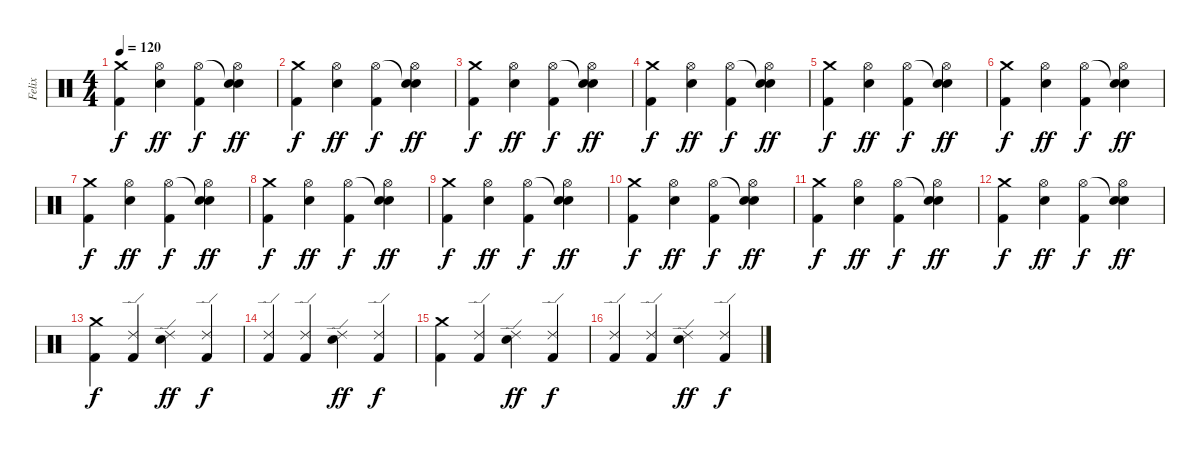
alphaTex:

\track ("Felix" "Felix") {instrument percussion}
\staff {score}
\articulation defaults
\ts (4 4)
\tempo 120
\clef neutral
\ks c
("Crash medium (hit)" "Kick (hit) 2").4{dy f} ("Hi-Hat (open)" "Electric Snare (hit)").4{dy ff} ("Hi-Hat (open)" "Kick (hit) 2").4{dy f} ("Snare (hit)"{t} "Hi-Hat (open)" "Electric Snare (hit)").4{dy ff} |
("Crash medium (hit)" "Kick (hit) 2").4{dy f} ("Hi-Hat (open)" "Electric Snare (hit)").4{dy ff} ("Hi-Hat (open)" "Kick (hit) 2").4{dy f} ("Snare (hit)"{t} "Hi-Hat (open)" "Electric Snare (hit)").4{dy ff} |
("Crash medium (hit)" "Kick (hit) 2").4{dy f} ("Hi-Hat (open)" "Electric Snare (hit)").4{dy ff} ("Hi-Hat (open)" "Kick (hit) 2").4{dy f} ("Snare (hit)"{t} "Hi-Hat (open)" "Electric Snare (hit)").4{dy ff} |
("Crash medium (hit)" "Kick (hit) 2").4{dy f} ("Hi-Hat (open)" "Electric Snare (hit)").4{dy ff} ("Hi-Hat (open)" "Kick (hit) 2").4{dy f} ("Snare (hit)"{t} "Hi-Hat (open)" "Electric Snare (hit)").4{dy ff} |
("Crash medium (hit)" "Kick (hit) 2").4{dy f} ("Hi-Hat (open)" "Electric Snare (hit)").4{dy ff} ("Hi-Hat (open)" "Kick (hit) 2").4{dy f} ("Snare (hit)"{t} "Hi-Hat (open)" "Electric Snare (hit)").4{dy ff} |
("Crash medium (hit)" "Kick (hit) 2").4{dy f} ("Hi-Hat (open)" "Electric Snare (hit)").4{dy ff} ("Hi-Hat (open)" "Kick (hit) 2").4{dy f} ("Snare (hit)"{t} "Hi-Hat (open)" "Electric Snare (hit)").4{dy ff} |
("Crash medium (hit)" "Kick (hit) 2").4{dy f} ("Hi-Hat (open)" "Electric Snare (hit)").4{dy ff} ("Hi-Hat (open)" "Kick (hit) 2").4{dy f} ("Snare (hit)"{t} "Hi-Hat (open)" "Electric Snare (hit)").4{dy ff} |
("Crash medium (hit)" "Kick (hit) 2").4{dy f} ("Hi-Hat (open)" "Electric Snare (hit)").4{dy ff} ("Hi-Hat (open)" "Kick (hit) 2").4{dy f} ("Snare (hit)"{t} "Hi-Hat (open)" "Electric Snare (hit)").4{dy ff} |
("Crash medium (hit)" "Kick (hit) 2").4{dy f} ("Hi-Hat (open)" "Electric Snare (hit)").4{dy ff} ("Hi-Hat (open)" "Kick (hit) 2").4{dy f} ("Snare (hit)"{t} "Hi-Hat (open)" "Electric Snare (hit)").4{dy ff} |
("Crash medium (hit)" "Kick (hit) 2").4{dy f} ("Hi-Hat (open)" "Electric Snare (hit)").4{dy ff} ("Hi-Hat (open)" "Kick (hit) 2").4{dy f} ("Snare (hit)"{t} "Hi-Hat (open)" "Electric Snare (hit)").4{dy ff} |
("Crash medium (hit)" "Kick (hit) 2").4{dy f} ("Hi-Hat (open)" "Electric Snare (hit)").4{dy ff} ("Hi-Hat (open)" "Kick (hit) 2").4{dy f} ("Snare (hit)"{t} "Hi-Hat (open)" "Electric Snare (hit)").4{dy ff} |
("Crash medium (hit)" "Kick (hit) 2").4{dy f} ("Hi-Hat (open)" "Electric Snare (hit)").4{dy ff} ("Hi-Hat (open)" "Kick (hit) 2").4{dy f} ("Snare (hit)"{t} "Hi-Hat (open)" "Electric Snare (hit)").4{dy ff} |
("Crash medium (hit)" "Kick (hit) 2").4{dy f} ("Ride (edge) 2" "Kick (hit) 2").4 ("Ride (edge) 2" "Electric Snare (hit)").4{dy ff} ("Ride (edge) 2" "Kick (hit) 2").4{dy f} |
("Ride (edge) 2" "Kick (hit) 2").4 ("Ride (edge) 2" "Kick (hit) 2").4 ("Ride (edge) 2" "Electric Snare (hit)").4{dy ff} ("Ride (edge) 2" "Kick (hit) 2").4{dy f} |
("Crash medium (hit)" "Kick (hit) 2").4 ("Ride (edge) 2" "Kick (hit) 2").4 ("Ride (edge) 2" "Electric Snare (hit)").4{dy ff} ("Ride (edge) 2" "Kick (hit) 2").4{dy f} |
("Ride (edge) 2" "Kick (hit) 2").4 ("Ride (edge) 2" "Kick (hit) 2").4 ("Ride (edge) 2" "Electric Snare (hit)").4{dy ff} ("Ride (edge) 2" "Kick (hit) 2").4{dy f}
